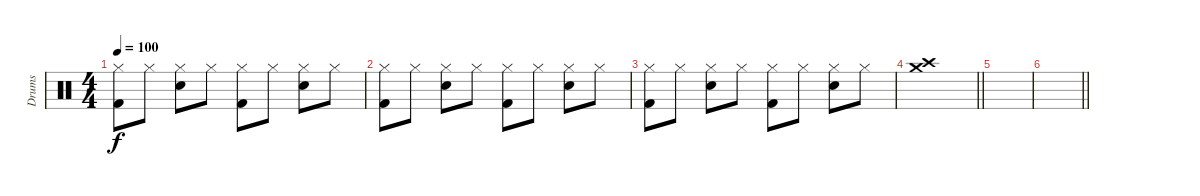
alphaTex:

\track ("Drums" "Drums") {instrument percussion}
\staff {score}
\articulation defaults
\ts (4 4)
\tempo 100
\clef neutral
\ks c
("Hi-Hat (closed)" "Kick (hit) 2").8{dy f} "Hi-Hat (closed)".8 ("Hi-Hat (closed)" "Snare (hit) 2").8 "Hi-Hat (closed)".8 ("Hi-Hat (closed)" "Kick (hit) 2").8 "Hi-Hat (closed)".8 ("Hi-Hat (closed)" "Snare (hit) 2").8 "Hi-Hat (closed)".8 |
("Hi-Hat (closed)" "Kick (hit) 2").8 "Hi-Hat (closed)".8 ("Hi-Hat (closed)" "Snare (hit) 2").8 "Hi-Hat (closed)".8 ("Hi-Hat (closed)" "Kick (hit) 2").8 "Hi-Hat (closed)".8 ("Hi-Hat (closed)" "Snare (hit) 2").8 "Hi-Hat (closed)".8 |
("Hi-Hat (closed)" "Kick (hit) 2").8 "Hi-Hat (closed)".8 ("Hi-Hat (closed)" "Snare (hit) 2").8 "Hi-Hat (closed)".8 ("Hi-Hat (closed)" "Kick (hit) 2").8 "Hi-Hat (closed)".8 ("Hi-Hat (closed)" "Snare (hit) 2").8 "Hi-Hat (closed)".8 |
\barLineRight lightlight
("Crash high (hit)" "Crash medium (hit)").1 |
|
\barLineRight lightlight
